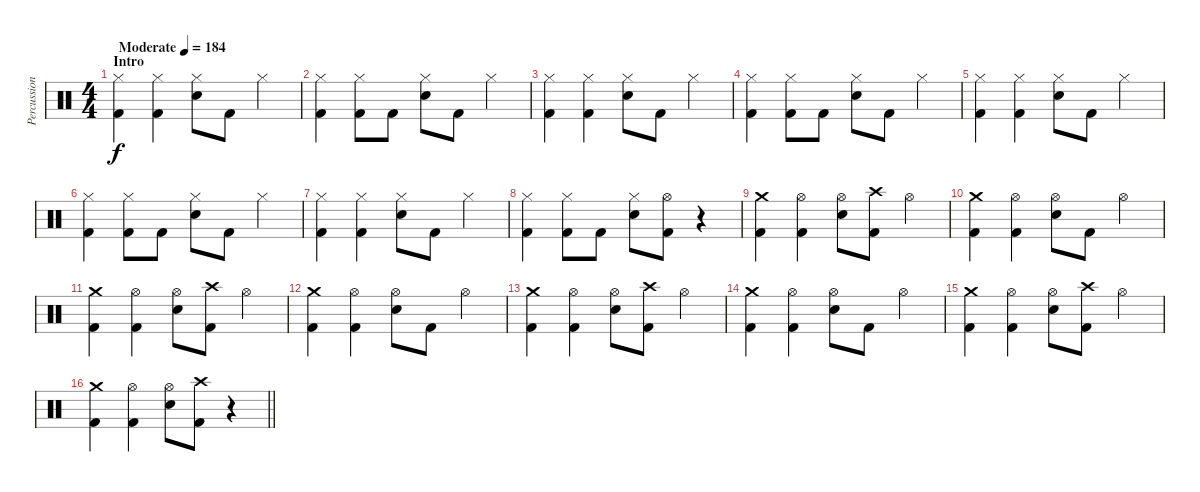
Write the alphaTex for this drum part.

\track ("Percussions" "Percussion") {instrument percussion}
\staff {score}
\articulation defaults
\ts (4 4)
\section ("" "Intro")
\tempo (184 "Moderate")
\clef neutral
\ks c
("Hi-Hat (closed)" "Kick (hit) 2").4{dy f} ("Hi-Hat (closed)" "Kick (hit) 2").4 ("Hi-Hat (closed)" "Electric Snare (hit)").8 "Kick (hit) 2".8 "Hi-Hat (closed)".4 |
("Hi-Hat (closed)" "Kick (hit) 2").4 ("Hi-Hat (closed)" "Kick (hit) 2").8 "Kick (hit) 2".8 ("Hi-Hat (closed)" "Electric Snare (hit)").8 "Kick (hit) 2".8 "Hi-Hat (closed)".4 |
("Hi-Hat (closed)" "Kick (hit) 2").4 ("Hi-Hat (closed)" "Kick (hit) 2").4 ("Hi-Hat (closed)" "Electric Snare (hit)").8 "Kick (hit) 2".8 "Hi-Hat (closed)".4 |
("Hi-Hat (closed)" "Kick (hit) 2").4 ("Hi-Hat (closed)" "Kick (hit) 2").8 "Kick (hit) 2".8 ("Hi-Hat (closed)" "Electric Snare (hit)").8 "Kick (hit) 2".8 "Hi-Hat (closed)".4 |
("Hi-Hat (closed)" "Kick (hit) 2").4 ("Hi-Hat (closed)" "Kick (hit) 2").4 ("Hi-Hat (closed)" "Electric Snare (hit)").8 "Kick (hit) 2".8 "Hi-Hat (closed)".4 |
("Hi-Hat (closed)" "Kick (hit) 2").4 ("Hi-Hat (closed)" "Kick (hit) 2").8 "Kick (hit) 2".8 ("Hi-Hat (closed)" "Electric Snare (hit)").8 "Kick (hit) 2".8 "Hi-Hat (closed)".4 |
("Hi-Hat (closed)" "Kick (hit) 2").4 ("Hi-Hat (closed)" "Kick (hit) 2").4 ("Hi-Hat (closed)" "Electric Snare (hit)").8 "Kick (hit) 2".8 "Hi-Hat (closed)".4 |
("Hi-Hat (closed)" "Kick (hit) 2").4 ("Hi-Hat (closed)" "Kick (hit) 2").8 "Kick (hit) 2".8 ("Hi-Hat (closed)" "Electric Snare (hit)").8 ("Hi-Hat (open)" "Kick (hit) 2").8 r.4 |
("Crash medium (hit)" "Kick (hit) 2").4 ("Hi-Hat (open)" "Kick (hit) 2").4 ("Hi-Hat (open)" "Electric Snare (hit)").8 ("Crash high (hit)" "Kick (hit) 2").8 "Hi-Hat (open)".4 |
("Crash medium (hit)" "Kick (hit) 2").4 ("Hi-Hat (open)" "Kick (hit) 2").4 ("Hi-Hat (open)" "Electric Snare (hit)").8 "Kick (hit) 2".8 "Hi-Hat (open)".4 |
("Crash medium (hit)" "Kick (hit) 2").4 ("Hi-Hat (open)" "Kick (hit) 2").4 ("Hi-Hat (open)" "Electric Snare (hit)").8 ("Crash high (hit)" "Kick (hit) 2").8 "Hi-Hat (open)".4 |
("Crash medium (hit)" "Kick (hit) 2").4 ("Hi-Hat (open)" "Kick (hit) 2").4 ("Hi-Hat (open)" "Electric Snare (hit)").8 "Kick (hit) 2".8 "Hi-Hat (open)".4 |
("Crash medium (hit)" "Kick (hit) 2").4 ("Hi-Hat (open)" "Kick (hit) 2").4 ("Hi-Hat (open)" "Electric Snare (hit)").8 ("Crash high (hit)" "Kick (hit) 2").8 "Hi-Hat (open)".4 |
("Crash medium (hit)" "Kick (hit) 2").4 ("Hi-Hat (open)" "Kick (hit) 2").4 ("Hi-Hat (open)" "Electric Snare (hit)").8 "Kick (hit) 2".8 "Hi-Hat (open)".4 |
("Crash medium (hit)" "Kick (hit) 2").4 ("Hi-Hat (open)" "Kick (hit) 2").4 ("Hi-Hat (open)" "Electric Snare (hit)").8 ("Crash high (hit)" "Kick (hit) 2").8 "Hi-Hat (open)".4 |
\barLineRight lightlight
("Crash medium (hit)" "Kick (hit) 2").4 ("Hi-Hat (open)" "Kick (hit) 2").4 ("Hi-Hat (open)" "Electric Snare (hit)").8 ("Crash high (hit)" "Kick (hit) 2").8 r.4
